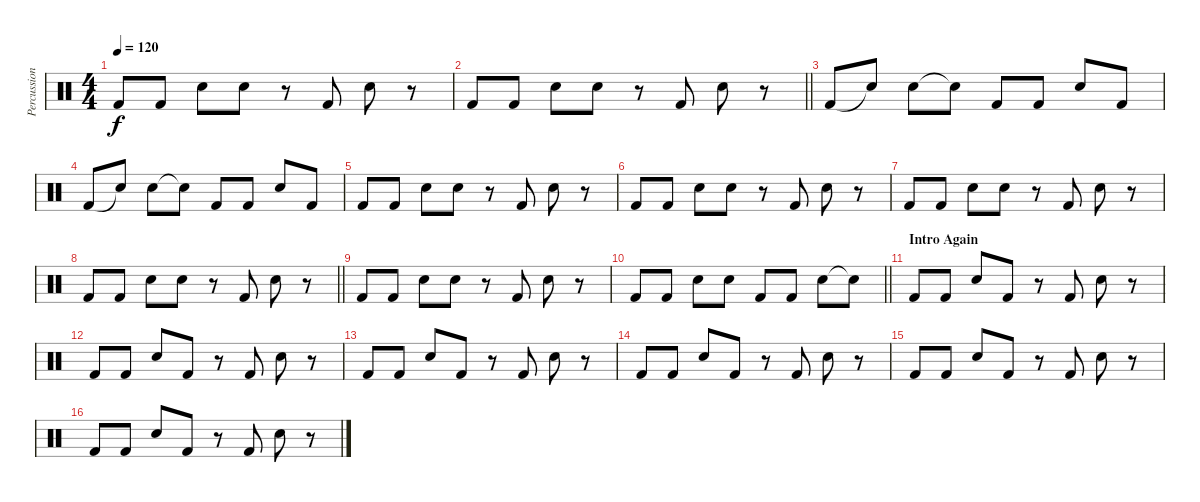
\track ("Percussion" "Percussion") {instrument percussion}
\staff {score}
\articulation defaults
\ts (4 4)
\tempo 120
\clef neutral
\ks c "Kick (hit) 2".8{dy f} "Kick (hit) 2".8 "Snare (hit) 2".8 "Snare (hit) 2".8
r.8 "Kick (hit) 2".8 "Snare (hit) 2".8 r.8 |
\barLineRight lightlight "Kick (hit) 2".8 "Kick (hit) 2".8 "Snare (hit) 2".8 "Snare (hit) 2".8
r.8 "Kick (hit) 2".8 "Snare (hit) 2".8 r.8 |
"Kick (hit) 2".8 "Snare (hit)"{t}.8 "Snare (hit) 2".8 "Snare (hit)"{t}.8 "Kick (hit) 2".8 "Kick (hit) 2".8 "Snare (hit) 2".8 "Kick (hit) 2".8 |
"Kick (hit) 2".8 "Snare (hit)"{t}.8 "Snare (hit) 2".8 "Snare (hit)"{t}.8 "Kick (hit) 2".8 "Kick (hit) 2".8 "Snare (hit) 2".8 "Kick (hit) 2".8 |
"Kick (hit) 2".8 "Kick (hit) 2".8 "Snare (hit) 2".8 "Snare (hit) 2".8 r.8 "Kick (hit) 2".8 "Snare (hit) 2".8 r.8 |
"Kick (hit) 2".8 "Kick (hit) 2".8 "Snare (hit) 2".8 "Snare (hit) 2".8 r.8 "Kick (hit) 2".8 "Snare (hit) 2".8 r.8 |
"Kick (hit) 2".8 "Kick (hit) 2".8 "Snare (hit) 2".8 "Snare (hit) 2".8 r.8 "Kick (hit) 2".8 "Snare (hit) 2".8 r.8 |
\barLineRight lightlight "Kick (hit) 2".8 "Kick (hit) 2".8 "Snare (hit) 2".8 "Snare (hit) 2".8
r.8 "Kick (hit) 2".8 "Snare (hit) 2".8 r.8 |
"Kick (hit) 2".8 "Kick (hit) 2".8 "Snare (hit) 2".8 "Snare (hit) 2".8 r.8 "Kick (hit) 2".8 "Snare (hit) 2".8 r.8 |
\barLineRight lightlight "Kick (hit) 2".8 "Kick (hit) 2".8 "Snare (hit) 2".8 "Snare (hit) 2".8 "Kick (hit) 2".8 "Kick (hit) 2".8 "Snare (hit) 2".8 "Snare (hit)"{t}.8
|
\section ("" "Intro Again")
"Kick (hit) 2".8 "Kick (hit) 2".8 "Snare (hit) 2".8 "Kick (hit) 2".8 r.8 "Kick (hit) 2".8 "Snare (hit) 2".8 r.8 |
"Kick (hit) 2".8 "Kick (hit) 2".8 "Snare (hit) 2".8 "Kick (hit) 2".8 r.8 "Kick (hit) 2".8 "Snare (hit) 2".8 r.8 |
"Kick (hit) 2".8 "Kick (hit) 2".8 "Snare (hit) 2".8 "Kick (hit) 2".8 r.8 "Kick (hit) 2".8 "Snare (hit) 2".8 r.8 |
"Kick (hit) 2".8 "Kick (hit) 2".8 "Snare (hit) 2".8 "Kick (hit) 2".8 r.8 "Kick (hit) 2".8 "Snare (hit) 2".8 r.8 |
"Kick (hit) 2".8 "Kick (hit) 2".8 "Snare (hit) 2".8 "Kick (hit) 2".8 r.8 "Kick (hit) 2".8 "Snare (hit) 2".8 r.8 |
"Kick (hit) 2".8 "Kick (hit) 2".8 "Snare (hit) 2".8 "Kick (hit) 2".8 r.8 "Kick (hit) 2".8 "Snare (hit) 2".8 r.8
